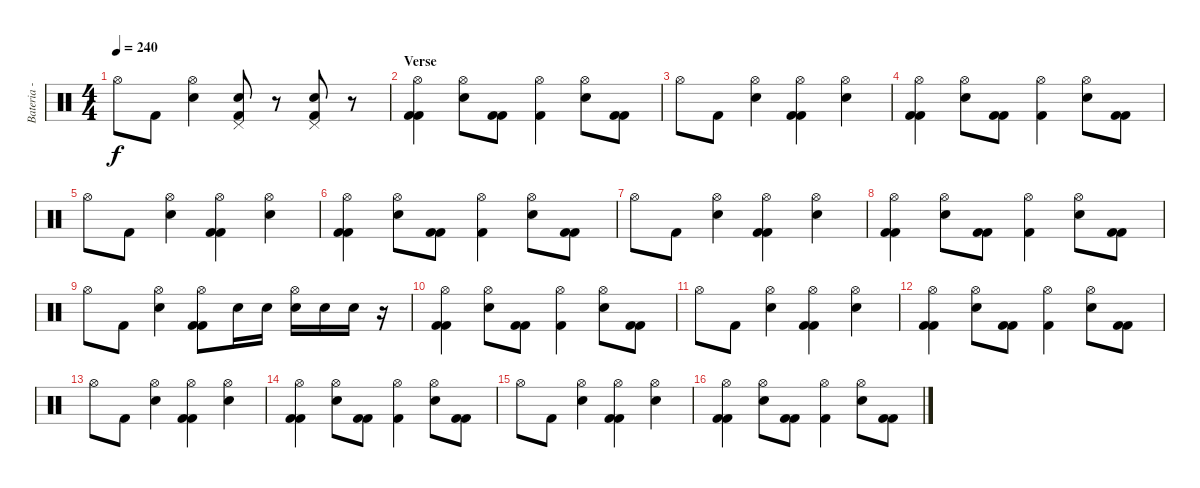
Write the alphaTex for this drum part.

\track ("Bateria - Larzon" "Bateria - ") {instrument percussion}
\staff {score}
\articulation defaults
\ts (4 4)
\tempo 240
\clef neutral
\ks c "Hi-Hat (open)".8{dy f} "Kick (hit) 2".8
("Hi-Hat (open)" "Snare (hit) 2").4 ("Pedal Hi-Hat (hit)" "Snare (hit) 2" "Kick (hit) 2").8 r.8 ("Pedal Hi-Hat (hit)" "Snare (hit) 2" "Kick (hit) 2").8 r.8 |
\section ("" "Verse")
("Kick (hit) 2" "Hi-Hat (open)" "Kick (hit) 2").4 ("Hi-Hat (open)" "Snare (hit) 2").8 ("Kick (hit) 2" "Kick (hit) 2").8 ("Kick (hit) 2" "Hi-Hat (open)").4 ("Hi-Hat (open)" "Snare (hit) 2").8 ("Kick (hit) 2" "Kick (hit) 2").8 |
"Hi-Hat (open)".8 "Kick (hit) 2".8 ("Hi-Hat (open)" "Snare (hit) 2").4 ("Kick (hit) 2" "Hi-Hat (open)" "Kick (hit) 2").4 ("Hi-Hat (open)" "Snare (hit) 2").4 |
("Kick (hit) 2" "Hi-Hat (open)" "Kick (hit) 2").4 ("Hi-Hat (open)" "Snare (hit) 2").8 ("Kick (hit) 2" "Kick (hit) 2").8 ("Kick (hit) 2" "Hi-Hat (open)").4 ("Hi-Hat (open)" "Snare (hit) 2").8 ("Kick (hit) 2" "Kick (hit) 2").8 |
"Hi-Hat (open)".8 "Kick (hit) 2".8 ("Hi-Hat (open)" "Snare (hit) 2").4 ("Kick (hit) 2" "Hi-Hat (open)" "Kick (hit) 2").4 ("Hi-Hat (open)" "Snare (hit) 2").4 |
("Kick (hit) 2" "Hi-Hat (open)" "Kick (hit) 2").4 ("Hi-Hat (open)" "Snare (hit) 2").8 ("Kick (hit) 2" "Kick (hit) 2").8 ("Kick (hit) 2" "Hi-Hat (open)").4 ("Hi-Hat (open)" "Snare (hit) 2").8 ("Kick (hit) 2" "Kick (hit) 2").8 |
"Hi-Hat (open)".8 "Kick (hit) 2".8 ("Hi-Hat (open)" "Snare (hit) 2").4 ("Kick (hit) 2" "Hi-Hat (open)" "Kick (hit) 2").4 ("Hi-Hat (open)" "Snare (hit) 2").4 |
("Kick (hit) 2" "Hi-Hat (open)" "Kick (hit) 2").4 ("Hi-Hat (open)" "Snare (hit) 2").8 ("Kick (hit) 2" "Kick (hit) 2").8 ("Kick (hit) 2" "Hi-Hat (open)").4 ("Hi-Hat (open)" "Snare (hit) 2").8 ("Kick (hit) 2" "Kick (hit) 2").8 |
"Hi-Hat (open)".8 "Kick (hit) 2".8 ("Hi-Hat (open)" "Snare (hit) 2").4 ("Kick (hit) 2" "Hi-Hat (open)" "Kick (hit) 2").8{volume 12} "Snare (hit) 2".16 "Snare (hit) 2".16{volume 16} ("Hi-Hat (open)" "Snare (hit) 2").16{volume 12} "Snare (hit) 2".16 "Snare (hit) 2".16{volume 16} r.16 |
("Kick (hit) 2" "Hi-Hat (open)" "Kick (hit) 2").4 ("Hi-Hat (open)" "Snare (hit) 2").8 ("Kick (hit) 2" "Kick (hit) 2").8 ("Kick (hit) 2" "Hi-Hat (open)").4 ("Hi-Hat (open)" "Snare (hit) 2").8 ("Kick (hit) 2" "Kick (hit) 2").8 |
"Hi-Hat (open)".8 "Kick (hit) 2".8 ("Hi-Hat (open)" "Snare (hit) 2").4 ("Kick (hit) 2" "Hi-Hat (open)" "Kick (hit) 2").4 ("Hi-Hat (open)" "Snare (hit) 2").4 |
("Kick (hit) 2" "Hi-Hat (open)" "Kick (hit) 2").4 ("Hi-Hat (open)" "Snare (hit) 2").8 ("Kick (hit) 2" "Kick (hit) 2").8 ("Kick (hit) 2" "Hi-Hat (open)").4 ("Hi-Hat (open)" "Snare (hit) 2").8 ("Kick (hit) 2" "Kick (hit) 2").8 |
"Hi-Hat (open)".8 "Kick (hit) 2".8 ("Hi-Hat (open)" "Snare (hit) 2").4 ("Kick (hit) 2" "Hi-Hat (open)" "Kick (hit) 2").4 ("Hi-Hat (open)" "Snare (hit) 2").4 |
("Kick (hit) 2" "Hi-Hat (open)" "Kick (hit) 2").4 ("Hi-Hat (open)" "Snare (hit) 2").8 ("Kick (hit) 2" "Kick (hit) 2").8 ("Kick (hit) 2" "Hi-Hat (open)").4 ("Hi-Hat (open)" "Snare (hit) 2").8 ("Kick (hit) 2" "Kick (hit) 2").8 |
"Hi-Hat (open)".8 "Kick (hit) 2".8 ("Hi-Hat (open)" "Snare (hit) 2").4 ("Kick (hit) 2" "Hi-Hat (open)" "Kick (hit) 2").4 ("Hi-Hat (open)" "Snare (hit) 2").4 |
("Kick (hit) 2" "Hi-Hat (open)" "Kick (hit) 2").4 ("Hi-Hat (open)" "Snare (hit) 2").8 ("Kick (hit) 2" "Kick (hit) 2").8 ("Kick (hit) 2" "Hi-Hat (open)").4 ("Hi-Hat (open)" "Snare (hit) 2").8 ("Kick (hit) 2" "Kick (hit) 2").8
